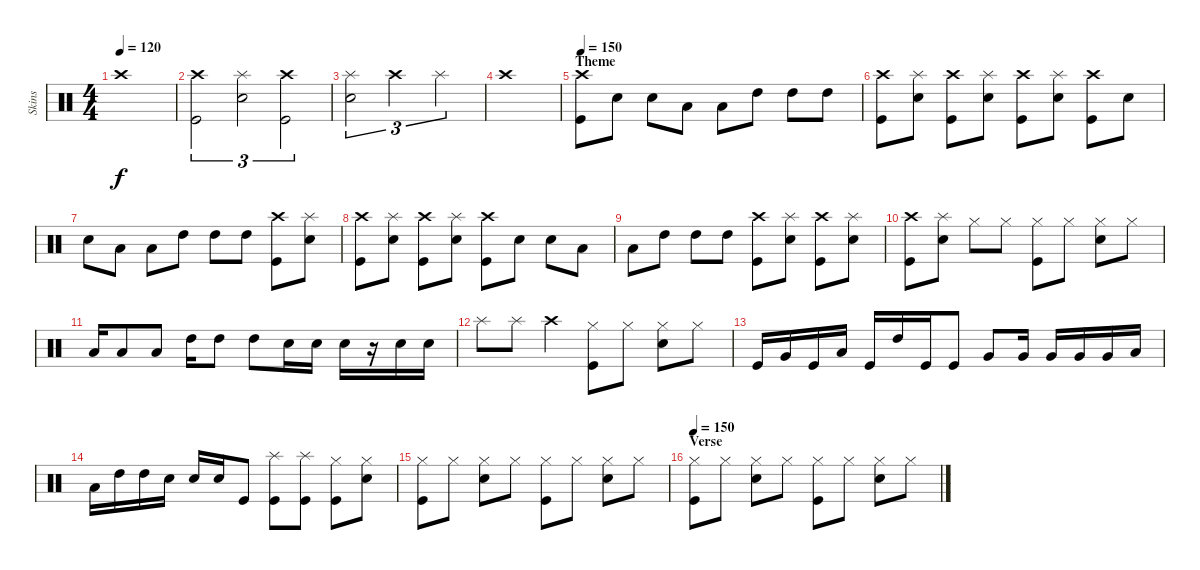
\track ("Skins" "Skins") {instrument percussion}
\staff {score}
\articulation defaults
\ts (4 4)
\tempo 120
\clef neutral
\ks c "Crash high (hit)".1{dy f}
|
("Crash high (hit)" "Kick (hit)").2{tu (3 2)} ("Splash (hit)" "Snare (hit) 2").2{tu (3 2)} ("Crash high (hit)" "Kick (hit)").2{tu (3 2)} |
("Splash (hit)" "Snare (hit) 2").2{tu (3 2)} "Crash high (hit)".2{tu (3 2)} "Splash (hit)".2{tu (3 2)} |
"Crash high (hit)".1 |
\section ("" "Theme")
\tempo 150
("Crash high (hit)" "Kick (hit)").8 "Snare (hit) 2".8 "Snare (hit) 2".8 "Low Tom (hit)".8 "Low Tom (hit)".8 "High Tom (hit)".8 "High Tom (hit)".8 "High Tom (hit)".8 |
("Crash high (hit)" "Kick (hit)").8 ("Splash (hit)" "Snare (hit) 2").8 ("Crash high (hit)" "Kick (hit)").8 ("Splash (hit)" "Snare (hit) 2").8 ("Crash high (hit)" "Kick (hit)").8 ("Splash (hit)" "Snare (hit) 2").8 ("Crash high (hit)" "Kick (hit)").8 "Snare (hit) 2".8 |
"Snare (hit) 2".8 "Low Tom (hit)".8 "Low Tom (hit)".8 "High Tom (hit)".8 "High Tom (hit)".8 "High Tom (hit)".8 ("Crash high (hit)" "Kick (hit)").8 ("Splash (hit)" "Snare (hit) 2").8 |
("Crash high (hit)" "Kick (hit)").8 ("Splash (hit)" "Snare (hit) 2").8 ("Crash high (hit)" "Kick (hit)").8 ("Splash (hit)" "Snare (hit) 2").8 ("Crash high (hit)" "Kick (hit)").8 "Snare (hit) 2".8 "Snare (hit) 2".8 "Low Tom (hit)".8 |
"Low Tom (hit)".8 "High Tom (hit)".8 "High Tom (hit)".8 "High Tom (hit)".8 ("Crash high (hit)" "Kick (hit)").8 ("Splash (hit)" "Snare (hit) 2").8 ("Crash high (hit)" "Kick (hit)").8 ("Splash (hit)" "Snare (hit) 2").8 |
("Crash high (hit)" "Kick (hit)").8 ("Splash (hit)" "Snare (hit) 2").8 "Hi-Hat (closed)".8 "Hi-Hat (closed)".8 ("Hi-Hat (closed)" "Kick (hit)").8 "Hi-Hat (closed)".8 ("Hi-Hat (closed)" "Snare (hit) 2").8 "Hi-Hat (closed)".8 |
"Low Tom (hit)".16 "Low Tom (hit)".8 "Low Tom (hit)".8 "High Tom (hit)".16 "High Tom (hit)".8 "High Tom (hit)".8 "Snare (hit) 2".16 "Snare (hit) 2".16 "Snare (hit) 2".16 r.16 "Snare (hit) 2".16 "Snare (hit) 2".16 |
"Splash (hit)".8 "Splash (hit)".8 "Crash high (hit)".4 ("Hi-Hat (closed)" "Kick (hit)").8 "Hi-Hat (closed)".8 ("Hi-Hat (closed)" "Snare (hit) 2").8 "Hi-Hat (closed)".8 |
"Kick (hit)".16 "Very Low Tom (hit)".16 "Kick (hit)".16 "Low Tom (hit)".16 "Kick (hit)".16 "High Tom (hit)".16 "Kick (hit)".16 "Kick (hit)".8 "Very Low Tom (hit)".8 "Very Low Tom (hit)".16 "Very Low Tom (hit)".16 "Very Low Tom (hit)".16 "Very Low Tom (hit)".16 "Low Tom (hit)".16 |
"Low Tom (hit)".16 "High Tom (hit)".16 "High Tom (hit)".16 "Snare (hit) 2".16 "Snare (hit) 2".16 "Snare (hit) 2".16 "Kick (hit)".8 ("Splash (hit)" "Kick (hit)").8 ("Splash (hit)" "Kick (hit)").8 ("Hi-Hat (closed)" "Kick (hit)").8 ("Hi-Hat (closed)" "Snare (hit) 2").8 |
("Hi-Hat (closed)" "Kick (hit)").8 "Hi-Hat (closed)".8 ("Hi-Hat (closed)" "Snare (hit) 2").8 "Hi-Hat (closed)".8 ("Hi-Hat (closed)" "Kick (hit)").8 "Hi-Hat (closed)".8 ("Hi-Hat (closed)" "Snare (hit) 2").8 "Hi-Hat (closed)".8 |
\section ("" "Verse")
\tempo 150
("Hi-Hat (closed)" "Kick (hit)").8 "Hi-Hat (closed)".8 ("Hi-Hat (closed)" "Snare (hit) 2").8 "Hi-Hat (closed)".8 ("Hi-Hat (closed)" "Kick (hit)").8 "Hi-Hat (closed)".8 ("Hi-Hat (closed)" "Snare (hit) 2").8 "Hi-Hat (closed)".8
